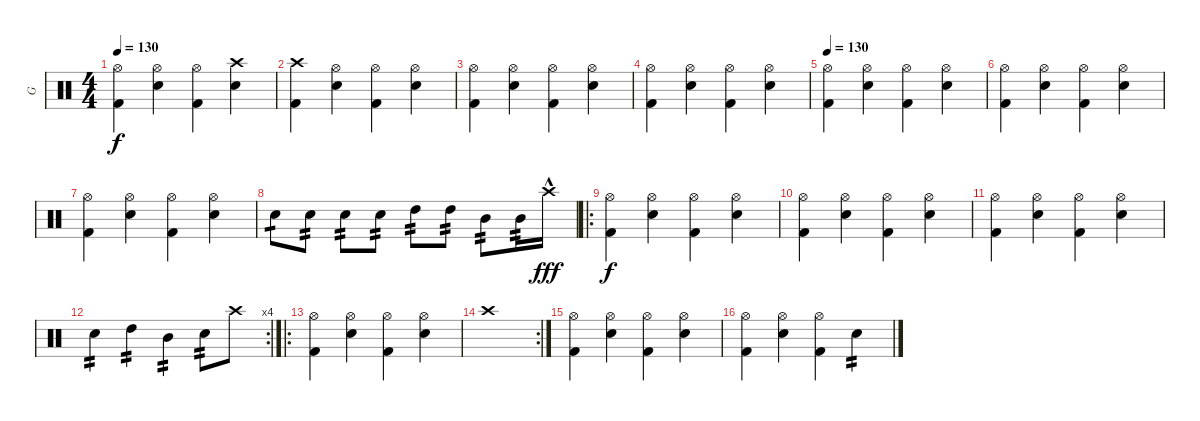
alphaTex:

\track ("G" "G") {instrument percussion}
\staff
\articulation defaults
\ts (4 4)
\tempo 130
\clef neutral
\ks c
("Hi-Hat (open)" "Kick (hit) 2").4{dy f} ("Hi-Hat (open)" "Electric Snare (hit)").4 ("Hi-Hat (open)" "Kick (hit) 2").4 ("Crash high (hit)" "Electric Snare (hit)").4 |
("Crash high (hit)" "Kick (hit) 2").4 ("Hi-Hat (open)" "Electric Snare (hit)").4 ("Hi-Hat (open)" "Kick (hit) 2").4 ("Hi-Hat (open)" "Electric Snare (hit)").4 |
("Hi-Hat (open)" "Kick (hit) 2").4 ("Hi-Hat (open)" "Electric Snare (hit)").4 ("Hi-Hat (open)" "Kick (hit) 2").4 ("Hi-Hat (open)" "Electric Snare (hit)").4 |
("Hi-Hat (open)" "Kick (hit) 2").4 ("Hi-Hat (open)" "Electric Snare (hit)").4 ("Hi-Hat (open)" "Kick (hit) 2").4 ("Hi-Hat (open)" "Electric Snare (hit)").4 |
\tempo 130
("Hi-Hat (open)" "Kick (hit) 2").4 ("Hi-Hat (open)" "Electric Snare (hit)").4 ("Hi-Hat (open)" "Kick (hit) 2").4 ("Hi-Hat (open)" "Electric Snare (hit)").4 |
("Hi-Hat (open)" "Kick (hit) 2").4 ("Hi-Hat (open)" "Electric Snare (hit)").4 ("Hi-Hat (open)" "Kick (hit) 2").4 ("Hi-Hat (open)" "Electric Snare (hit)").4 |
("Hi-Hat (open)" "Kick (hit) 2").4 ("Hi-Hat (open)" "Electric Snare (hit)").4 ("Hi-Hat (open)" "Kick (hit) 2").4 ("Hi-Hat (open)" "Electric Snare (hit)").4 |
"Electric Snare (hit)".8{tp 1} "Electric Snare (hit)".8{tp 2} "Electric Snare (hit)".8{tp 2} "Electric Snare (hit)".8{tp 2} "High Tom (hit)".8{tp 2} "High Tom (hit)".8{tp 2} "Mid Tom (hit)".8{tp 2} "Mid Tom (hit)".16{tp 2} "Crash high (hit)"{hac}.16{dy fff} |
\ro
("Hi-Hat (open)" "Kick (hit) 2").4{dy f} ("Hi-Hat (open)" "Electric Snare (hit)").4 ("Hi-Hat (open)" "Kick (hit) 2").4 ("Hi-Hat (open)" "Electric Snare (hit)").4 |
("Hi-Hat (open)" "Kick (hit) 2").4 ("Hi-Hat (open)" "Electric Snare (hit)").4 ("Hi-Hat (open)" "Kick (hit) 2").4 ("Hi-Hat (open)" "Electric Snare (hit)").4 |
("Hi-Hat (open)" "Kick (hit) 2").4 ("Hi-Hat (open)" "Electric Snare (hit)").4 ("Hi-Hat (open)" "Kick (hit) 2").4 ("Hi-Hat (open)" "Electric Snare (hit)").4 |
\rc 4 "Electric Snare (hit)".4{tp 2} "High Tom (hit)".4{tp 2} "Mid Tom (hit)".4{tp 2} "Electric Snare (hit)".8{tp 2} "Crash high (hit)".8
|
\ro
("Hi-Hat (open)" "Kick (hit) 2").4 ("Hi-Hat (open)" "Electric Snare (hit)").4 ("Hi-Hat (open)" "Kick (hit) 2").4 ("Hi-Hat (open)" "Electric Snare (hit)").4 |
\rc 2 "Crash high (hit)".1
|
("Hi-Hat (open)" "Kick (hit) 2").4 ("Hi-Hat (open)" "Electric Snare (hit)").4 ("Hi-Hat (open)" "Kick (hit) 2").4 ("Hi-Hat (open)" "Electric Snare (hit)").4 |
("Hi-Hat (open)" "Kick (hit) 2").4 ("Hi-Hat (open)" "Electric Snare (hit)").4 ("Hi-Hat (open)" "Kick (hit) 2").4 "Electric Snare (hit)".4{tp 2}
